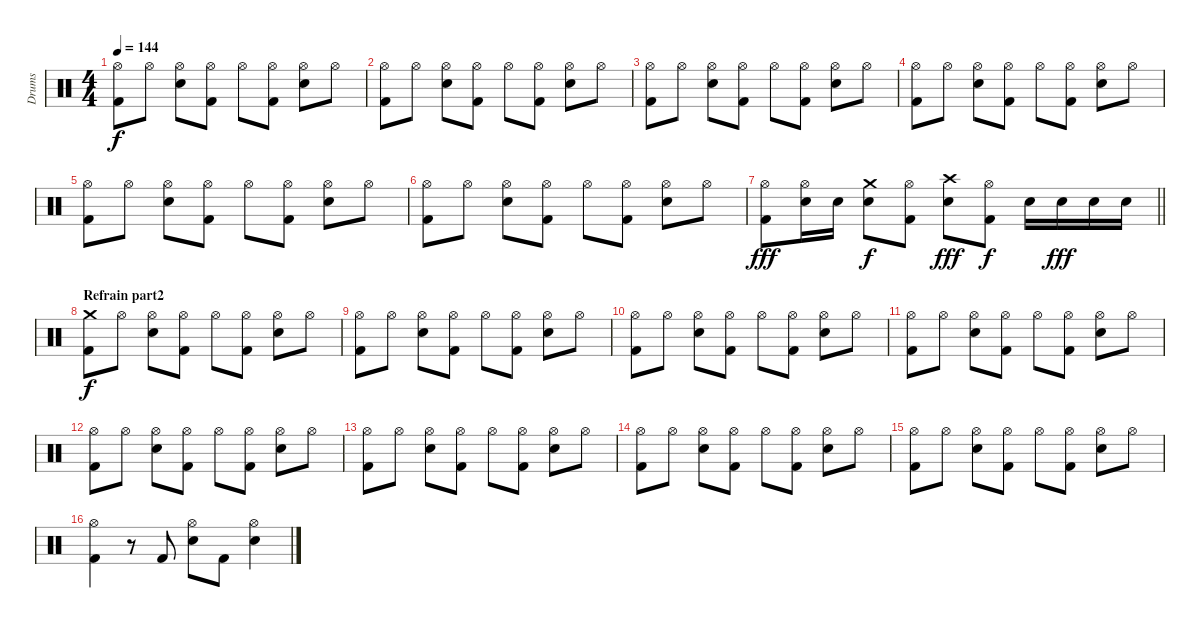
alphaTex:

\track ("Drums" "Drums") {instrument percussion}
\staff {score}
\articulation defaults
\ts (4 4)
\tempo 144
\clef neutral
\ks c
("Hi-Hat (open)" "Kick (hit) 2").8{dy f} "Hi-Hat (open)".8 ("Hi-Hat (open)" "Electric Snare (hit)").8 ("Hi-Hat (open)" "Kick (hit) 2").8 "Hi-Hat (open)".8 ("Hi-Hat (open)" "Kick (hit) 2").8 ("Hi-Hat (open)" "Electric Snare (hit)").8 "Hi-Hat (open)".8 |
("Hi-Hat (open)" "Kick (hit) 2").8 "Hi-Hat (open)".8 ("Hi-Hat (open)" "Electric Snare (hit)").8 ("Hi-Hat (open)" "Kick (hit) 2").8 "Hi-Hat (open)".8 ("Hi-Hat (open)" "Kick (hit) 2").8 ("Hi-Hat (open)" "Electric Snare (hit)").8 "Hi-Hat (open)".8 |
("Hi-Hat (open)" "Kick (hit) 2").8 "Hi-Hat (open)".8 ("Hi-Hat (open)" "Electric Snare (hit)").8 ("Hi-Hat (open)" "Kick (hit) 2").8 "Hi-Hat (open)".8 ("Hi-Hat (open)" "Kick (hit) 2").8 ("Hi-Hat (open)" "Electric Snare (hit)").8 "Hi-Hat (open)".8 |
("Hi-Hat (open)" "Kick (hit) 2").8 "Hi-Hat (open)".8 ("Hi-Hat (open)" "Electric Snare (hit)").8 ("Hi-Hat (open)" "Kick (hit) 2").8 "Hi-Hat (open)".8 ("Hi-Hat (open)" "Kick (hit) 2").8 ("Hi-Hat (open)" "Electric Snare (hit)").8 "Hi-Hat (open)".8 |
("Hi-Hat (open)" "Kick (hit) 2").8 "Hi-Hat (open)".8 ("Hi-Hat (open)" "Electric Snare (hit)").8 ("Hi-Hat (open)" "Kick (hit) 2").8 "Hi-Hat (open)".8 ("Hi-Hat (open)" "Kick (hit) 2").8 ("Hi-Hat (open)" "Electric Snare (hit)").8 "Hi-Hat (open)".8 |
("Hi-Hat (open)" "Kick (hit) 2").8 "Hi-Hat (open)".8 ("Hi-Hat (open)" "Electric Snare (hit)").8 ("Hi-Hat (open)" "Kick (hit) 2").8 "Hi-Hat (open)".8 ("Hi-Hat (open)" "Kick (hit) 2").8 ("Hi-Hat (open)" "Electric Snare (hit)").8 "Hi-Hat (open)".8 |
\barLineRight lightlight
("Hi-Hat (open)" "Kick (hit) 2").8{dy fff} ("Hi-Hat (open)" "Electric Snare (hit)").16 "Electric Snare (hit)".16 ("Crash medium (hit)" "Electric Snare (hit)").8{dy f} ("Hi-Hat (open)" "Kick (hit) 2").8 ("Crash high (hit)" "Electric Snare (hit)").8{dy fff} ("Hi-Hat (open)" "Kick (hit) 2").8{dy f} "Electric Snare (hit)".16 "Electric Snare (hit)".16{dy fff} "Electric Snare (hit)".16 "Electric Snare (hit)".16 |
\section ("" "Refrain part2")
("Crash medium (hit)" "Kick (hit) 2").8{dy f} "Hi-Hat (open)".8 ("Hi-Hat (open)" "Electric Snare (hit)").8 ("Hi-Hat (open)" "Kick (hit) 2").8 "Hi-Hat (open)".8 ("Hi-Hat (open)" "Kick (hit) 2").8 ("Hi-Hat (open)" "Electric Snare (hit)").8 "Hi-Hat (open)".8 |
("Hi-Hat (open)" "Kick (hit) 2").8 "Hi-Hat (open)".8 ("Hi-Hat (open)" "Electric Snare (hit)").8 ("Hi-Hat (open)" "Kick (hit) 2").8 "Hi-Hat (open)".8 ("Hi-Hat (open)" "Kick (hit) 2").8 ("Hi-Hat (open)" "Electric Snare (hit)").8 "Hi-Hat (open)".8 |
("Hi-Hat (open)" "Kick (hit) 2").8 "Hi-Hat (open)".8 ("Hi-Hat (open)" "Electric Snare (hit)").8 ("Hi-Hat (open)" "Kick (hit) 2").8 "Hi-Hat (open)".8 ("Hi-Hat (open)" "Kick (hit) 2").8 ("Hi-Hat (open)" "Electric Snare (hit)").8 "Hi-Hat (open)".8 |
("Hi-Hat (open)" "Kick (hit) 2").8 "Hi-Hat (open)".8 ("Hi-Hat (open)" "Electric Snare (hit)").8 ("Hi-Hat (open)" "Kick (hit) 2").8 "Hi-Hat (open)".8 ("Hi-Hat (open)" "Kick (hit) 2").8 ("Hi-Hat (open)" "Electric Snare (hit)").8 "Hi-Hat (open)".8 |
("Hi-Hat (open)" "Kick (hit) 2").8 "Hi-Hat (open)".8 ("Hi-Hat (open)" "Electric Snare (hit)").8 ("Hi-Hat (open)" "Kick (hit) 2").8 "Hi-Hat (open)".8 ("Hi-Hat (open)" "Kick (hit) 2").8 ("Hi-Hat (open)" "Electric Snare (hit)").8 "Hi-Hat (open)".8 |
("Hi-Hat (open)" "Kick (hit) 2").8 "Hi-Hat (open)".8 ("Hi-Hat (open)" "Electric Snare (hit)").8 ("Hi-Hat (open)" "Kick (hit) 2").8 "Hi-Hat (open)".8 ("Hi-Hat (open)" "Kick (hit) 2").8 ("Hi-Hat (open)" "Electric Snare (hit)").8 "Hi-Hat (open)".8 |
("Hi-Hat (open)" "Kick (hit) 2").8 "Hi-Hat (open)".8 ("Hi-Hat (open)" "Electric Snare (hit)").8 ("Hi-Hat (open)" "Kick (hit) 2").8 "Hi-Hat (open)".8 ("Hi-Hat (open)" "Kick (hit) 2").8 ("Hi-Hat (open)" "Electric Snare (hit)").8 "Hi-Hat (open)".8 |
("Hi-Hat (open)" "Kick (hit) 2").8 "Hi-Hat (open)".8 ("Hi-Hat (open)" "Electric Snare (hit)").8 ("Hi-Hat (open)" "Kick (hit) 2").8 "Hi-Hat (open)".8 ("Hi-Hat (open)" "Kick (hit) 2").8 ("Hi-Hat (open)" "Electric Snare (hit)").8 "Hi-Hat (open)".8 |
("Hi-Hat (open)" "Kick (hit) 2").4 r.8 "Kick (hit) 2".8 ("Hi-Hat (open)" "Electric Snare (hit)").8 "Kick (hit) 2".8 ("Hi-Hat (open)" "Electric Snare (hit)").4
